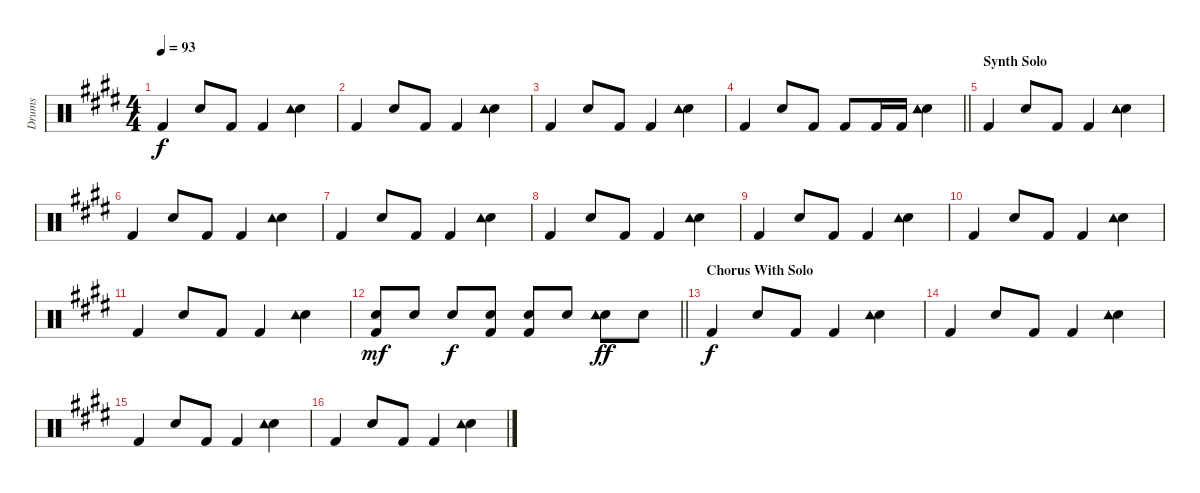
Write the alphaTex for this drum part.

\track ("Drums" "Drums") {instrument percussion}
\staff {score}
\articulation defaults
\ts (4 4)
\tempo 93
\clef neutral
\ks c#minor "Kick (hit) 2".4{dy f} "Electric Snare (hit)".8 "Kick (hit) 2".8 "Kick (hit) 2".4
("Electric Snare (hit)" "Tambourine (hit)").4 |
"Kick (hit) 2".4 "Electric Snare (hit)".8 "Kick (hit) 2".8 "Kick (hit) 2".4 ("Electric Snare (hit)" "Tambourine (hit)").4 |
"Kick (hit) 2".4 "Electric Snare (hit)".8 "Kick (hit) 2".8 "Kick (hit) 2".4 ("Electric Snare (hit)" "Tambourine (hit)").4 |
\barLineRight lightlight "Kick (hit) 2".4 "Electric Snare (hit)".8 "Kick (hit) 2".8 "Kick (hit) 2".8 "Kick (hit) 2".16 "Kick (hit) 2".16
("Electric Snare (hit)" "Tambourine (hit)").4 |
\section ("" "Synth Solo")
"Kick (hit) 2".4 "Electric Snare (hit)".8 "Kick (hit) 2".8 "Kick (hit) 2".4 ("Electric Snare (hit)" "Tambourine (hit)").4 |
"Kick (hit) 2".4 "Electric Snare (hit)".8 "Kick (hit) 2".8 "Kick (hit) 2".4 ("Electric Snare (hit)" "Tambourine (hit)").4 |
"Kick (hit) 2".4 "Electric Snare (hit)".8 "Kick (hit) 2".8 "Kick (hit) 2".4 ("Electric Snare (hit)" "Tambourine (hit)").4 |
"Kick (hit) 2".4 "Electric Snare (hit)".8 "Kick (hit) 2".8 "Kick (hit) 2".4 ("Electric Snare (hit)" "Tambourine (hit)").4 |
"Kick (hit) 2".4 "Electric Snare (hit)".8 "Kick (hit) 2".8 "Kick (hit) 2".4 ("Electric Snare (hit)" "Tambourine (hit)").4 |
"Kick (hit) 2".4 "Electric Snare (hit)".8 "Kick (hit) 2".8 "Kick (hit) 2".4 ("Electric Snare (hit)" "Tambourine (hit)").4 |
"Kick (hit) 2".4 "Electric Snare (hit)".8 "Kick (hit) 2".8 "Kick (hit) 2".4 ("Electric Snare (hit)" "Tambourine (hit)").4 |
\barLineRight lightlight
("Electric Snare (hit)" "Kick (hit) 2").8{dy mf} "Electric Snare (hit)".8 "Electric Snare (hit)".8{dy f} ("Electric Snare (hit)" "Kick (hit) 2").8 ("Electric Snare (hit)" "Kick (hit) 2").8 "Electric Snare (hit)".8 ("Electric Snare (hit)" "Tambourine (hit)").8{dy ff} "Electric Snare (hit)".8 |
\section ("" "Chorus With Solo")
"Kick (hit) 2".4{dy f} "Electric Snare (hit)".8 "Kick (hit) 2".8 "Kick (hit) 2".4 ("Electric Snare (hit)" "Tambourine (hit)").4 |
"Kick (hit) 2".4 "Electric Snare (hit)".8 "Kick (hit) 2".8 "Kick (hit) 2".4 ("Electric Snare (hit)" "Tambourine (hit)").4 |
"Kick (hit) 2".4 "Electric Snare (hit)".8 "Kick (hit) 2".8 "Kick (hit) 2".4 ("Electric Snare (hit)" "Tambourine (hit)").4 |
"Kick (hit) 2".4 "Electric Snare (hit)".8 "Kick (hit) 2".8 "Kick (hit) 2".4 ("Electric Snare (hit)" "Tambourine (hit)").4
